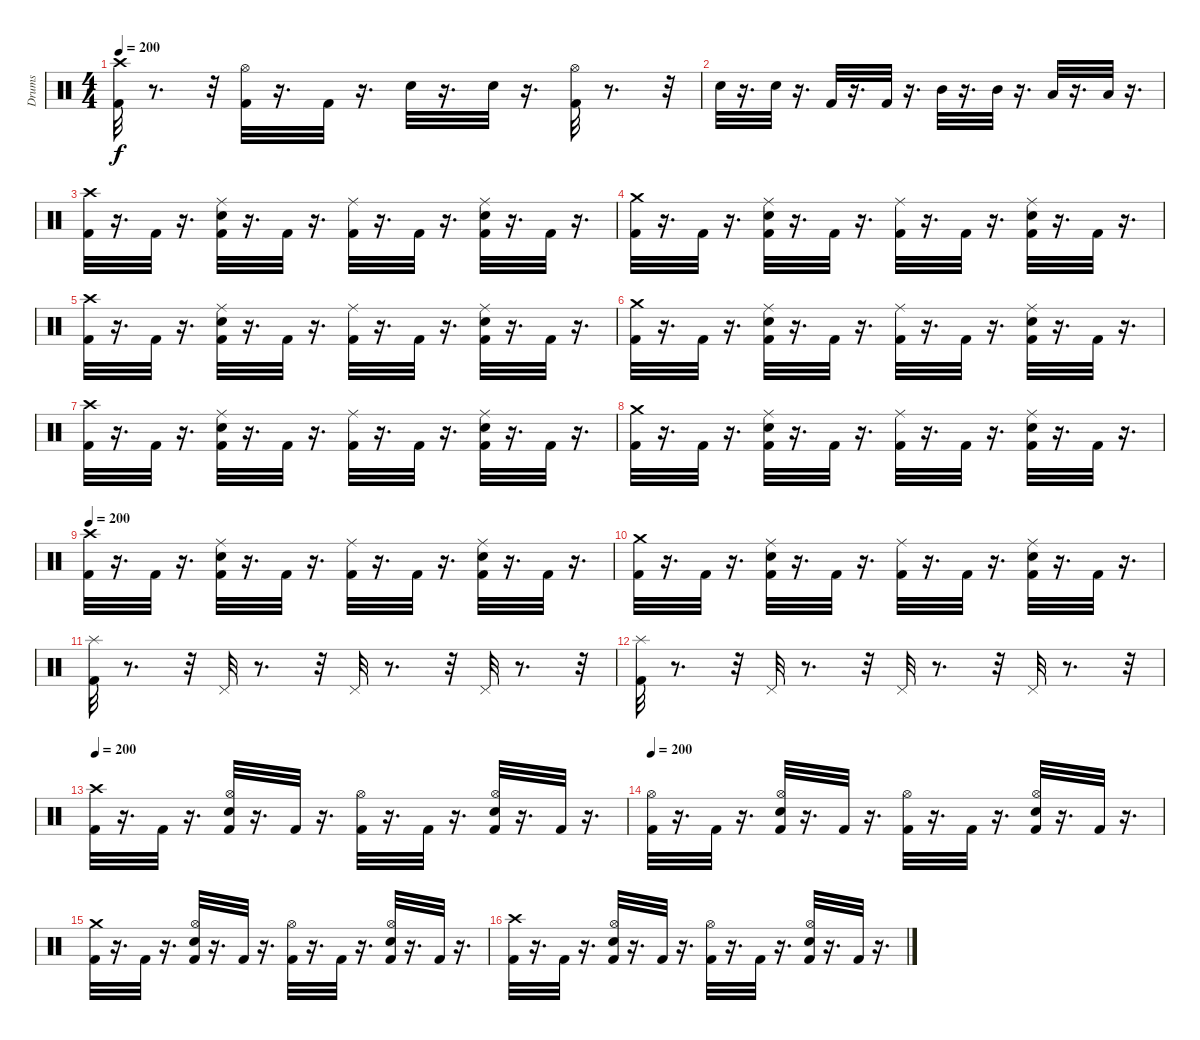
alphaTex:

\track ("Drums" "Drums") {instrument percussion}
\staff {score}
\articulation defaults
\ts (4 4)
\tempo 200
\clef neutral
\ks c
("Crash high (hit)" "Kick (hit) 2").32{dy f} r.8{d} r.32 ("Hi-Hat (open)" "Kick (hit) 2").32 r.16{d} "Kick (hit) 2".32 r.16{d} "Electric Snare (hit)".32 r.16{d} "Electric Snare (hit)".32 r.16{d} ("Hi-Hat (open)" "Kick (hit) 2").32 r.8{d} r.32 |
"Electric Snare (hit)".32 r.16{d} "Electric Snare (hit)".32 r.16{d} "Kick (hit) 2".32 r.16{d} "Kick (hit) 2".32 r.16{d} "Mid Tom (hit)".32 r.16{d} "Mid Tom (hit)".32 r.16{d} "Low Tom (hit)".32 r.16{d} "Low Tom (hit)".32 r.16{d} |
("Crash high (hit)" "Kick (hit) 2").32 r.16{d} "Kick (hit) 2".32 r.16{d} ("Electric Snare (hit)" "Ride (middle)" "Kick (hit) 2").32 r.16{d} "Kick (hit) 2".32 r.16{d} ("Ride (middle)" "Kick (hit) 2").32 r.16{d} "Kick (hit) 2".32 r.16{d} ("Electric Snare (hit)" "Ride (middle)" "Kick (hit) 2").32 r.16{d} "Kick (hit) 2".32 r.16{d} |
("Kick (hit) 2" "Crash medium (hit)").32 r.16{d} "Kick (hit) 2".32 r.16{d} ("Kick (hit) 2" "Electric Snare (hit)" "Ride (middle)").32 r.16{d} "Kick (hit) 2".32 r.16{d} ("Kick (hit) 2" "Ride (middle)").32 r.16{d} "Kick (hit) 2".32 r.16{d} ("Kick (hit) 2" "Electric Snare (hit)" "Ride (middle)").32 r.16{d} "Kick (hit) 2".32 r.16{d} |
("Crash high (hit)" "Kick (hit) 2").32 r.16{d} "Kick (hit) 2".32 r.16{d} ("Electric Snare (hit)" "Ride (middle)" "Kick (hit) 2").32 r.16{d} "Kick (hit) 2".32 r.16{d} ("Ride (middle)" "Kick (hit) 2").32 r.16{d} "Kick (hit) 2".32 r.16{d} ("Electric Snare (hit)" "Ride (middle)" "Kick (hit) 2").32 r.16{d} "Kick (hit) 2".32 r.16{d} |
("Kick (hit) 2" "Crash medium (hit)").32 r.16{d} "Kick (hit) 2".32 r.16{d} ("Kick (hit) 2" "Electric Snare (hit)" "Ride (middle)").32 r.16{d} "Kick (hit) 2".32 r.16{d} ("Kick (hit) 2" "Ride (middle)").32 r.16{d} "Kick (hit) 2".32 r.16{d} ("Kick (hit) 2" "Electric Snare (hit)" "Ride (middle)").32 r.16{d} "Kick (hit) 2".32 r.16{d} |
("Crash high (hit)" "Kick (hit) 2").32 r.16{d} "Kick (hit) 2".32 r.16{d} ("Electric Snare (hit)" "Ride (middle)" "Kick (hit) 2").32 r.16{d} "Kick (hit) 2".32 r.16{d} ("Ride (middle)" "Kick (hit) 2").32 r.16{d} "Kick (hit) 2".32 r.16{d} ("Electric Snare (hit)" "Ride (middle)" "Kick (hit) 2").32 r.16{d} "Kick (hit) 2".32 r.16{d} |
("Kick (hit) 2" "Crash medium (hit)").32 r.16{d} "Kick (hit) 2".32 r.16{d} ("Kick (hit) 2" "Electric Snare (hit)" "Ride (middle)").32 r.16{d} "Kick (hit) 2".32 r.16{d} ("Kick (hit) 2" "Ride (middle)").32 r.16{d} "Kick (hit) 2".32 r.16{d} ("Kick (hit) 2" "Electric Snare (hit)" "Ride (middle)").32 r.16{d} "Kick (hit) 2".32 r.16{d} |
\tempo 200
("Crash high (hit)" "Kick (hit) 2").32 r.16{d} "Kick (hit) 2".32 r.16{d} ("Electric Snare (hit)" "Ride (middle)" "Kick (hit) 2").32 r.16{d} "Kick (hit) 2".32 r.16{d} ("Ride (middle)" "Kick (hit) 2").32 r.16{d} "Kick (hit) 2".32 r.16{d} ("Electric Snare (hit)" "Ride (middle)" "Kick (hit) 2").32 r.16{d} "Kick (hit) 2".32 r.16{d} |
("Kick (hit) 2" "Crash medium (hit)").32 r.16{d} "Kick (hit) 2".32 r.16{d} ("Kick (hit) 2" "Electric Snare (hit)" "Ride (middle)").32 r.16{d} "Kick (hit) 2".32 r.16{d} ("Kick (hit) 2" "Ride (middle)").32 r.16{d} "Kick (hit) 2".32 r.16{d} ("Kick (hit) 2" "Electric Snare (hit)" "Ride (middle)").32 r.16{d} "Kick (hit) 2".32 r.16{d} |
("Splash (hit)" "Kick (hit) 2").32 r.8{d} r.32 "Pedal Hi-Hat (hit)".32 r.8{d} r.32 "Pedal Hi-Hat (hit)".32 r.8{d} r.32 "Pedal Hi-Hat (hit)".32 r.8{d} r.32 |
("Splash (hit)" "Kick (hit) 2").32 r.8{d} r.32 "Pedal Hi-Hat (hit)".32 r.8{d} r.32 "Pedal Hi-Hat (hit)".32 r.8{d} r.32 "Pedal Hi-Hat (hit)".32 r.8{d} r.32 |
\tempo 200
("Crash high (hit)" "Kick (hit) 2").32 r.16{d} "Kick (hit) 2".32 r.16{d} ("Hi-Hat (open)" "Electric Snare (hit)" "Kick (hit) 2").32 r.16{d} "Kick (hit) 2".32 r.16{d} ("Hi-Hat (open)" "Kick (hit) 2").32 r.16{d} "Kick (hit) 2".32 r.16{d} ("Hi-Hat (open)" "Electric Snare (hit)" "Kick (hit) 2").32 r.16{d} "Kick (hit) 2".32 r.16{d} |
\tempo 200
("Hi-Hat (open)" "Kick (hit) 2").32 r.16{d} "Kick (hit) 2".32 r.16{d} ("Hi-Hat (open)" "Electric Snare (hit)" "Kick (hit) 2").32 r.16{d} "Kick (hit) 2".32 r.16{d} ("Hi-Hat (open)" "Kick (hit) 2").32 r.16{d} "Kick (hit) 2".32 r.16{d} ("Hi-Hat (open)" "Electric Snare (hit)" "Kick (hit) 2").32 r.16{d} "Kick (hit) 2".32 r.16{d} |
("Kick (hit) 2" "Crash medium (hit)").32 r.16{d} "Kick (hit) 2".32 r.16{d} ("Kick (hit) 2" "Electric Snare (hit)" "Hi-Hat (open)").32 r.16{d} "Kick (hit) 2".32 r.16{d} ("Kick (hit) 2" "Hi-Hat (open)").32 r.16{d} "Kick (hit) 2".32 r.16{d} ("Kick (hit) 2" "Hi-Hat (open)" "Electric Snare (hit)").32 r.16{d} "Kick (hit) 2".32 r.16{d} |
("Kick (hit) 2" "Crash high (hit)").32 r.16{d} "Kick (hit) 2".32 r.16{d} ("Kick (hit) 2" "Electric Snare (hit)" "Hi-Hat (open)").32 r.16{d} "Kick (hit) 2".32 r.16{d} ("Hi-Hat (open)" "Kick (hit) 2").32 r.16{d} "Kick (hit) 2".32 r.16{d} ("Kick (hit) 2" "Electric Snare (hit)" "Hi-Hat (open)").32 r.16{d} "Kick (hit) 2".32 r.16{d}
